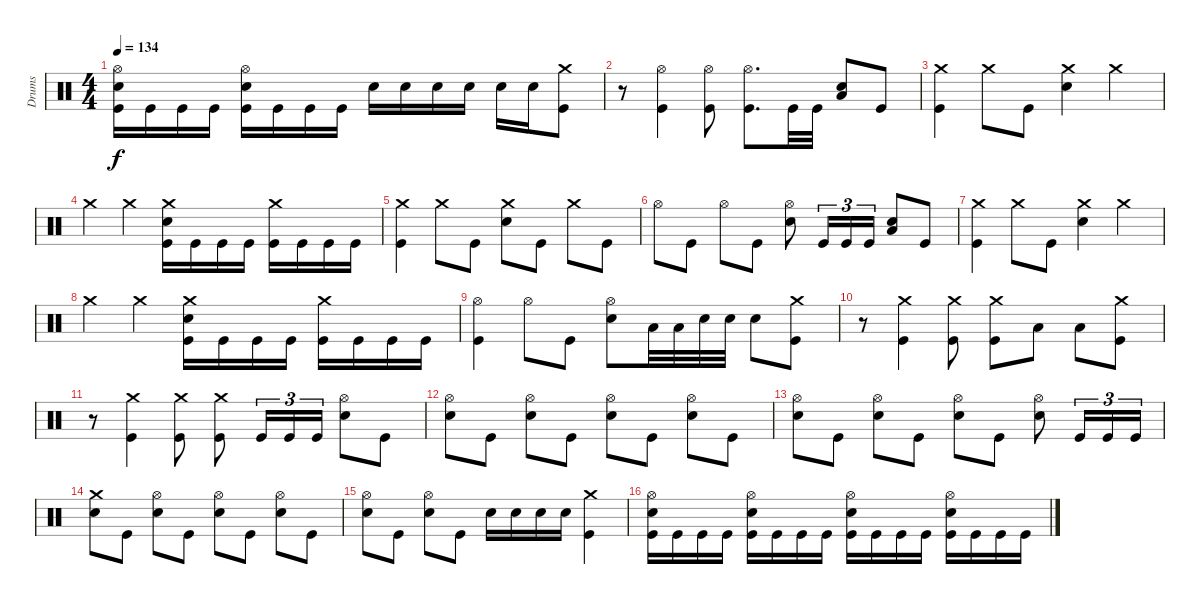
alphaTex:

\track ("Drums" "Drums") {instrument percussion}
\staff {score}
\articulation defaults
\ts (4 4)
\tempo 134
\clef neutral
\ks c
("Hi-Hat (open)" "Snare (hit) 2" "Kick (hit)").16{dy f} "Kick (hit)".16 "Kick (hit)".16 "Kick (hit)".16 ("Hi-Hat (open)" "Snare (hit) 2" "Kick (hit)").16 "Kick (hit)".16 "Kick (hit)".16 "Kick (hit)".16 "Snare (hit) 2".16 "Snare (hit) 2".16 "Snare (hit) 2".16 "Snare (hit) 2".16 "Snare (hit) 2".16 "Snare (hit) 2".16 ("Crash medium (hit)" "Kick (hit)").8 |
r.8 ("Hi-Hat (open)" "Kick (hit)").4 ("Hi-Hat (open)" "Kick (hit)").8 ("Hi-Hat (open)" "Kick (hit)").8{d} "Kick (hit)".32 "Kick (hit)".32 ("Low Tom (hit)" "Snare (hit) 2").8 "Kick (hit)".8 |
("Crash medium (hit)" "Kick (hit)").4 "Crash medium (hit)".8 "Kick (hit)".8 ("Crash medium (hit)" "Snare (hit) 2").4 "Crash medium (hit)".4 |
"Crash medium (hit)".4 "Crash medium (hit)".4 ("Kick (hit)" "Crash medium (hit)" "Snare (hit) 2").16 "Kick (hit)".16 "Kick (hit)".16 "Kick (hit)".16 ("Crash medium (hit)" "Kick (hit)").16 "Kick (hit)".16 "Kick (hit)".16 "Kick (hit)".16 |
("Crash medium (hit)" "Kick (hit)").4 "Crash medium (hit)".8 "Kick (hit)".8 ("Crash medium (hit)" "Snare (hit) 2").8 "Kick (hit)".8 "Crash medium (hit)".8 "Kick (hit)".8 |
"Hi-Hat (open)".8 "Kick (hit)".8 "Hi-Hat (open)".8 "Kick (hit)".8 ("Hi-Hat (open)" "Snare (hit) 2").8 "Kick (hit)".16{tu (3 2)} "Kick (hit)".16{tu (3 2)} "Kick (hit)".16{tu (3 2)} ("Snare (hit) 2" "Low Tom (hit)").8 "Kick (hit)".8 |
("Crash medium (hit)" "Kick (hit)").4 "Crash medium (hit)".8 "Kick (hit)".8 ("Crash medium (hit)" "Snare (hit) 2").4 "Crash medium (hit)".4 |
"Crash medium (hit)".4 "Crash medium (hit)".4 ("Kick (hit)" "Crash medium (hit)" "Snare (hit) 2").16 "Kick (hit)".16 "Kick (hit)".16 "Kick (hit)".16 ("Crash medium (hit)" "Kick (hit)").16 "Kick (hit)".16 "Kick (hit)".16 "Kick (hit)".16 |
("Hi-Hat (open)" "Kick (hit)").4 "Hi-Hat (open)".8 "Kick (hit)".8 ("Hi-Hat (open)" "Snare (hit) 2").8 "Low Tom (hit)".32 "Low Tom (hit)".32 "Snare (hit) 2".32 "Snare (hit) 2".32 "Snare (hit) 2".8 ("Crash medium (hit)" "Kick (hit)").8 |
r.8 ("Crash medium (hit)" "Kick (hit)").4 ("Crash medium (hit)" "Kick (hit)").8 ("Crash medium (hit)" "Kick (hit)").8 "Low Floor Tom (hit)".8 "Low Floor Tom (hit)".8 ("Crash medium (hit)" "Kick (hit)").8 |
r.8 ("Crash medium (hit)" "Kick (hit)").4 ("Crash medium (hit)" "Kick (hit)").8 ("Crash medium (hit)" "Kick (hit)").8 "Kick (hit)".16{tu (3 2)} "Kick (hit)".16{tu (3 2)} "Kick (hit)".16{tu (3 2)} ("Snare (hit) 2" "Hi-Hat (open)").8 "Kick (hit)".8 |
("Hi-Hat (open)" "Snare (hit) 2").8 "Kick (hit)".8 ("Hi-Hat (open)" "Snare (hit) 2").8 "Kick (hit)".8 ("Hi-Hat (open)" "Snare (hit) 2").8 "Kick (hit)".8 ("Hi-Hat (open)" "Snare (hit) 2").8 "Kick (hit)".8 |
("Hi-Hat (open)" "Snare (hit) 2").8 "Kick (hit)".8 ("Hi-Hat (open)" "Snare (hit) 2").8 "Kick (hit)".8 ("Hi-Hat (open)" "Snare (hit) 2").8 "Kick (hit)".8 ("Hi-Hat (open)" "Snare (hit) 2").8 "Kick (hit)".16{tu (3 2)} "Kick (hit)".16{tu (3 2)} "Kick (hit)".16{tu (3 2)} |
("Crash medium (hit)" "Snare (hit) 2").8 "Kick (hit)".8 ("Hi-Hat (open)" "Snare (hit) 2").8 "Kick (hit)".8 ("Hi-Hat (open)" "Snare (hit) 2").8 "Kick (hit)".8 ("Hi-Hat (open)" "Snare (hit) 2").8 "Kick (hit)".8 |
("Hi-Hat (open)" "Snare (hit) 2").8 "Kick (hit)".8 ("Hi-Hat (open)" "Snare (hit) 2").8 "Kick (hit)".8 "Snare (hit) 2".16 "Snare (hit) 2".16 "Snare (hit) 2".16 "Snare (hit) 2".16 ("Crash medium (hit)" "Kick (hit)").4 |
("Snare (hit) 2" "Hi-Hat (open)" "Kick (hit)").16 "Kick (hit)".16 "Kick (hit)".16 "Kick (hit)".16 ("Snare (hit) 2" "Hi-Hat (open)" "Kick (hit)").16 "Kick (hit)".16 "Kick (hit)".16 "Kick (hit)".16 ("Snare (hit) 2" "Hi-Hat (open)" "Kick (hit)").16 "Kick (hit)".16 "Kick (hit)".16 "Kick (hit)".16 ("Snare (hit) 2" "Hi-Hat (open)" "Kick (hit)").16 "Kick (hit)".16 "Kick (hit)".16 "Kick (hit)".16
